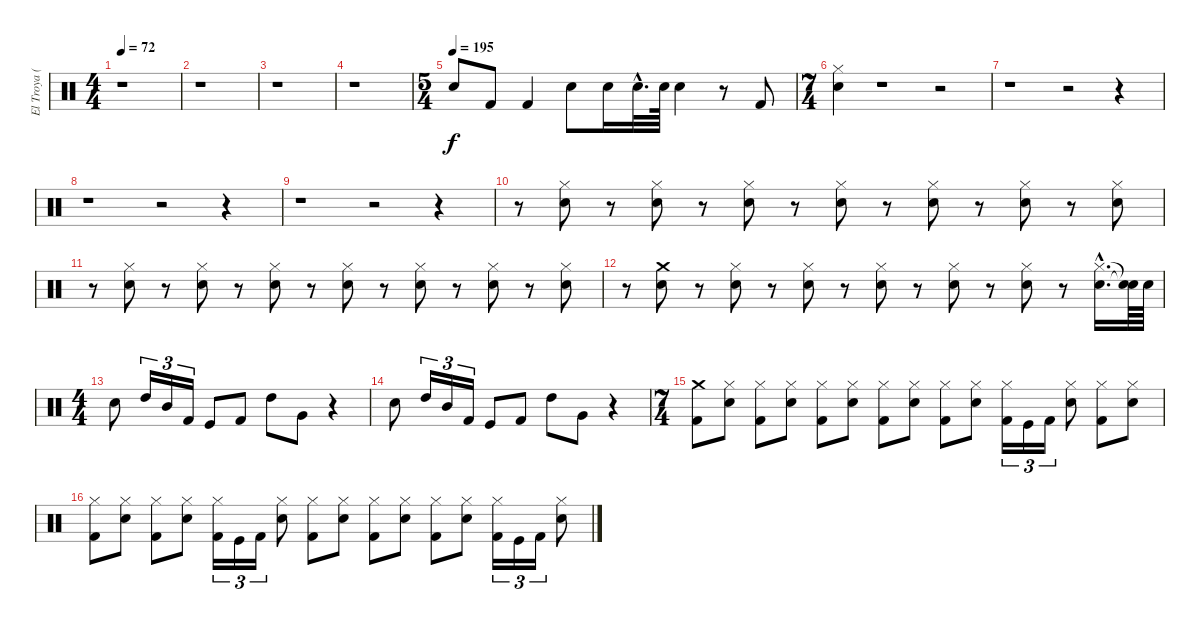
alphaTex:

\track ("El Troya (premio)" "El Troya (") {instrument percussion}
\staff {score}
\articulation defaults
\ts (4 4)
\tempo 72
\clef neutral
\ks c
r.1{dy f} |
r.1 |
r.1 |
r.1 |
\ts (5 4)
\tempo (195)
"Snare (hit) 2".8 "Kick (hit) 2".8 "Kick (hit) 2".4 "Snare (hit) 2".8 "Snare (hit) 2".16 "Snare (hit) 2"{hac}.32{d} "Snare (hit) 2".64 "Snare (hit) 2".4 r.8 "Kick (hit) 2".8 |
\ts (7 4)
("Snare (hit) 2" "Hi-Hat (closed)").4 r.1 r.2 |
r.1 r.2 r.4 |
r.1 r.2 r.4 |
r.1 r.2 r.4 |
r.8 ("Snare (hit) 2" "Hi-Hat (closed)").8 r.8 ("Snare (hit) 2" "Hi-Hat (closed)").8 r.8 ("Snare (hit) 2" "Hi-Hat (closed)").8 r.8 ("Snare (hit) 2" "Hi-Hat (closed)").8 r.8 ("Snare (hit) 2" "Hi-Hat (closed)").8 r.8 ("Snare (hit) 2" "Hi-Hat (closed)").8 r.8 ("Snare (hit) 2" "Hi-Hat (closed)").8 |
r.8 ("Snare (hit) 2" "Hi-Hat (closed)").8 r.8 ("Snare (hit) 2" "Hi-Hat (closed)").8 r.8 ("Snare (hit) 2" "Hi-Hat (closed)").8 r.8 ("Snare (hit) 2" "Hi-Hat (closed)").8 r.8 ("Snare (hit) 2" "Hi-Hat (closed)").8 r.8 ("Snare (hit) 2" "Hi-Hat (closed)").8 r.8 ("Snare (hit) 2" "Hi-Hat (closed)").8 |
r.8 ("Crash medium (hit)" "Snare (hit) 2").8 r.8 ("Snare (hit) 2" "Hi-Hat (closed)").8 r.8 ("Snare (hit) 2" "Hi-Hat (closed)").8 r.8 ("Snare (hit) 2" "Hi-Hat (closed)").8 r.8 ("Snare (hit) 2" "Hi-Hat (closed)").8 r.8 ("Snare (hit) 2" "Hi-Hat (closed)").8 r.8 ("Snare (hit) 2"{hac} "Hi-Hat (closed)"{hac}).16{d} ("Snare (hit)"{t} "Snare (hit)"{t}).64 "Snare (hit) 2".64 |
\ts (4 4)
"Snare (hit) 2".8 "High Tom (hit)".16{tu (3 2)} "Mid Tom (hit)".16{tu (3 2)} "Kick (hit) 2".16{tu (3 2)} "Kick (hit)".8 "Kick (hit) 2".8 "High Tom (hit)".8 "Very Low Tom (hit)".8 r.4 |
"Snare (hit) 2".8 "High Tom (hit)".16{tu (3 2)} "Mid Tom (hit)".16{tu (3 2)} "Kick (hit) 2".16{tu (3 2)} "Kick (hit)".8 "Kick (hit) 2".8 "High Tom (hit)".8 "Very Low Tom (hit)".8 r.4 |
\ts (7 4)
("Crash medium (hit)" "Kick (hit) 2").8 ("Snare (hit) 2" "Hi-Hat (closed)").8 ("Hi-Hat (closed)" "Kick (hit) 2").8 ("Snare (hit) 2" "Hi-Hat (closed)").8 ("Hi-Hat (closed)" "Kick (hit) 2").8 ("Snare (hit) 2" "Hi-Hat (closed)").8 ("Hi-Hat (closed)" "Kick (hit) 2").8 ("Snare (hit) 2" "Hi-Hat (closed)").8 ("Hi-Hat (closed)" "Kick (hit) 2").8 ("Snare (hit) 2" "Hi-Hat (closed)").8 ("Hi-Hat (closed)" "Kick (hit) 2").16{tu (3 2)} "Kick (hit)".16{tu (3 2)} "Kick (hit) 2".16{tu (3 2)} ("Snare (hit) 2" "Hi-Hat (closed)").8 ("Hi-Hat (closed)" "Kick (hit) 2").8 ("Snare (hit) 2" "Hi-Hat (closed)").8 |
("Hi-Hat (closed)" "Kick (hit) 2").8 ("Snare (hit) 2" "Hi-Hat (closed)").8 ("Hi-Hat (closed)" "Kick (hit) 2").8 ("Snare (hit) 2" "Hi-Hat (closed)").8 ("Hi-Hat (closed)" "Kick (hit) 2").16{tu (3 2)} "Kick (hit)".16{tu (3 2)} "Kick (hit) 2".16{tu (3 2)} ("Snare (hit) 2" "Hi-Hat (closed)").8 ("Hi-Hat (closed)" "Kick (hit) 2").8 ("Snare (hit) 2" "Hi-Hat (closed)").8 ("Hi-Hat (closed)" "Kick (hit) 2").8 ("Snare (hit) 2" "Hi-Hat (closed)").8 ("Kick (hit) 2" "Hi-Hat (closed)").8 ("Snare (hit) 2" "Hi-Hat (closed)").8 ("Kick (hit) 2" "Hi-Hat (closed)").16{tu (3 2)} "Kick (hit)".16{tu (3 2)} "Kick (hit) 2".16{tu (3 2)} ("Snare (hit) 2" "Hi-Hat (closed)").8
